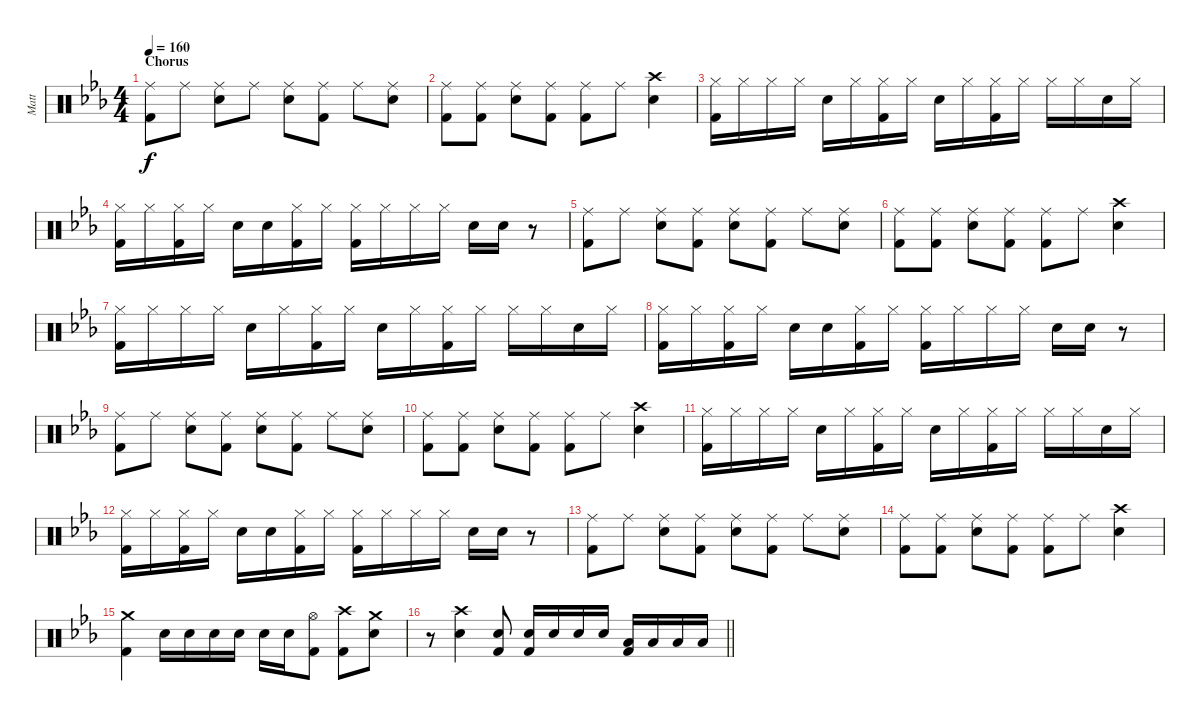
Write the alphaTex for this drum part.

\track ("Matt" "Matt") {instrument percussion}
\staff {score}
\articulation defaults
\ts (4 4)
\section ("" "Chorus")
\tempo 160
\clef neutral
\ks cminor
("Ride (middle)" "Kick (hit) 2").8{dy f} "Ride (middle)".8 ("Ride (middle)" "Electric Snare (hit)").8 "Ride (middle)".8 ("Ride (middle)" "Electric Snare (hit)").8 ("Ride (middle)" "Kick (hit) 2").8 "Ride (middle)".8 ("Ride (middle)" "Electric Snare (hit)").8 |
("Ride (middle)" "Kick (hit) 2").8 ("Ride (middle)" "Kick (hit) 2").8 ("Ride (middle)" "Electric Snare (hit)").8 ("Ride (middle)" "Kick (hit) 2").8 ("Ride (middle)" "Kick (hit) 2").8 "Ride (middle)".8 ("Crash high (hit)" "Electric Snare (hit)").4 |
("Hi-Hat (closed)" "Kick (hit) 2").16 "Hi-Hat (closed)".16 "Hi-Hat (closed)".16 "Hi-Hat (closed)".16 "Electric Snare (hit)".16 "Hi-Hat (closed)".16 ("Hi-Hat (closed)" "Kick (hit) 2").16 "Hi-Hat (closed)".16 "Electric Snare (hit)".16 "Hi-Hat (closed)".16 ("Hi-Hat (closed)" "Kick (hit) 2").16 "Hi-Hat (closed)".16 "Hi-Hat (closed)".16 "Hi-Hat (closed)".16 "Electric Snare (hit)".16 "Hi-Hat (closed)".16 |
("Hi-Hat (closed)" "Kick (hit) 2").16 "Hi-Hat (closed)".16 ("Hi-Hat (closed)" "Kick (hit) 2").16 "Hi-Hat (closed)".16 "Electric Snare (hit)".16 "Electric Snare (hit)".16 ("Hi-Hat (closed)" "Kick (hit) 2").16 "Hi-Hat (closed)".16 ("Hi-Hat (closed)" "Kick (hit) 2").16 "Hi-Hat (closed)".16 "Hi-Hat (closed)".16 "Hi-Hat (closed)".16 "Electric Snare (hit)".16 "Electric Snare (hit)".16 r.8 |
("Ride (middle)" "Kick (hit) 2").8 "Ride (middle)".8 ("Ride (middle)" "Electric Snare (hit)").8 ("Ride (middle)" "Kick (hit) 2").8 ("Ride (middle)" "Electric Snare (hit)").8 ("Ride (middle)" "Kick (hit) 2").8 "Ride (middle)".8 ("Ride (middle)" "Electric Snare (hit)").8 |
("Ride (middle)" "Kick (hit) 2").8 ("Ride (middle)" "Kick (hit) 2").8 ("Ride (middle)" "Electric Snare (hit)").8 ("Ride (middle)" "Kick (hit) 2").8 ("Ride (middle)" "Kick (hit) 2").8 "Ride (middle)".8 ("Crash high (hit)" "Electric Snare (hit)").4 |
("Hi-Hat (closed)" "Kick (hit) 2").16 "Hi-Hat (closed)".16 "Hi-Hat (closed)".16 "Hi-Hat (closed)".16 "Electric Snare (hit)".16 "Hi-Hat (closed)".16 ("Hi-Hat (closed)" "Kick (hit) 2").16 "Hi-Hat (closed)".16 "Electric Snare (hit)".16 "Hi-Hat (closed)".16 ("Hi-Hat (closed)" "Kick (hit) 2").16 "Hi-Hat (closed)".16 "Hi-Hat (closed)".16 "Hi-Hat (closed)".16 "Electric Snare (hit)".16 "Hi-Hat (closed)".16 |
("Hi-Hat (closed)" "Kick (hit) 2").16 "Hi-Hat (closed)".16 ("Hi-Hat (closed)" "Kick (hit) 2").16 "Hi-Hat (closed)".16 "Electric Snare (hit)".16 "Electric Snare (hit)".16 ("Hi-Hat (closed)" "Kick (hit) 2").16 "Hi-Hat (closed)".16 ("Hi-Hat (closed)" "Kick (hit) 2").16 "Hi-Hat (closed)".16 "Hi-Hat (closed)".16 "Hi-Hat (closed)".16 "Electric Snare (hit)".16 "Electric Snare (hit)".16 r.8 |
("Ride (middle)" "Kick (hit) 2").8 "Ride (middle)".8 ("Ride (middle)" "Electric Snare (hit)").8 ("Ride (middle)" "Kick (hit) 2").8 ("Ride (middle)" "Electric Snare (hit)").8 ("Ride (middle)" "Kick (hit) 2").8 "Ride (middle)".8 ("Ride (middle)" "Electric Snare (hit)").8 |
("Ride (middle)" "Kick (hit) 2").8 ("Ride (middle)" "Kick (hit) 2").8 ("Ride (middle)" "Electric Snare (hit)").8 ("Ride (middle)" "Kick (hit) 2").8 ("Ride (middle)" "Kick (hit) 2").8 "Ride (middle)".8 ("Crash high (hit)" "Electric Snare (hit)").4 |
("Hi-Hat (closed)" "Kick (hit) 2").16 "Hi-Hat (closed)".16 "Hi-Hat (closed)".16 "Hi-Hat (closed)".16 "Electric Snare (hit)".16 "Hi-Hat (closed)".16 ("Hi-Hat (closed)" "Kick (hit) 2").16 "Hi-Hat (closed)".16 "Electric Snare (hit)".16 "Hi-Hat (closed)".16 ("Hi-Hat (closed)" "Kick (hit) 2").16 "Hi-Hat (closed)".16 "Hi-Hat (closed)".16 "Hi-Hat (closed)".16 "Electric Snare (hit)".16 "Hi-Hat (closed)".16 |
("Hi-Hat (closed)" "Kick (hit) 2").16 "Hi-Hat (closed)".16 ("Hi-Hat (closed)" "Kick (hit) 2").16 "Hi-Hat (closed)".16 "Electric Snare (hit)".16 "Electric Snare (hit)".16 ("Hi-Hat (closed)" "Kick (hit) 2").16 "Hi-Hat (closed)".16 ("Hi-Hat (closed)" "Kick (hit) 2").16 "Hi-Hat (closed)".16 "Hi-Hat (closed)".16 "Hi-Hat (closed)".16 "Electric Snare (hit)".16 "Electric Snare (hit)".16 r.8 |
("Ride (middle)" "Kick (hit) 2").8 "Ride (middle)".8 ("Ride (middle)" "Electric Snare (hit)").8 ("Ride (middle)" "Kick (hit) 2").8 ("Ride (middle)" "Electric Snare (hit)").8 ("Ride (middle)" "Kick (hit) 2").8 "Ride (middle)".8 ("Ride (middle)" "Electric Snare (hit)").8 |
("Ride (middle)" "Kick (hit) 2").8 ("Ride (middle)" "Kick (hit) 2").8 ("Ride (middle)" "Electric Snare (hit)").8 ("Ride (middle)" "Kick (hit) 2").8 ("Ride (middle)" "Kick (hit) 2").8 "Ride (middle)".8 ("Crash high (hit)" "Electric Snare (hit)").4 |
("Crash medium (hit)" "Kick (hit) 2").4 "Electric Snare (hit)".16 "Electric Snare (hit)".16 "Electric Snare (hit)".16 "Electric Snare (hit)".16 "Electric Snare (hit)".16 "Electric Snare (hit)".16 ("Hi-Hat (open)" "Kick (hit) 2").8 ("Crash high (hit)" "Kick (hit) 2").8 ("Crash medium (hit)" "Electric Snare (hit)").8 |
\barLineRight lightlight
r.8 ("Crash high (hit)" "Electric Snare (hit)").4 ("Electric Snare (hit)" "Kick (hit) 2").8 ("Electric Snare (hit)" "Kick (hit) 2").16 "Electric Snare (hit)".16 "Electric Snare (hit)".16 "Electric Snare (hit)".16 ("Low Tom (hit)" "Kick (hit) 2").16 "Low Tom (hit)".16 "Low Tom (hit)".16 "Low Tom (hit)".16
